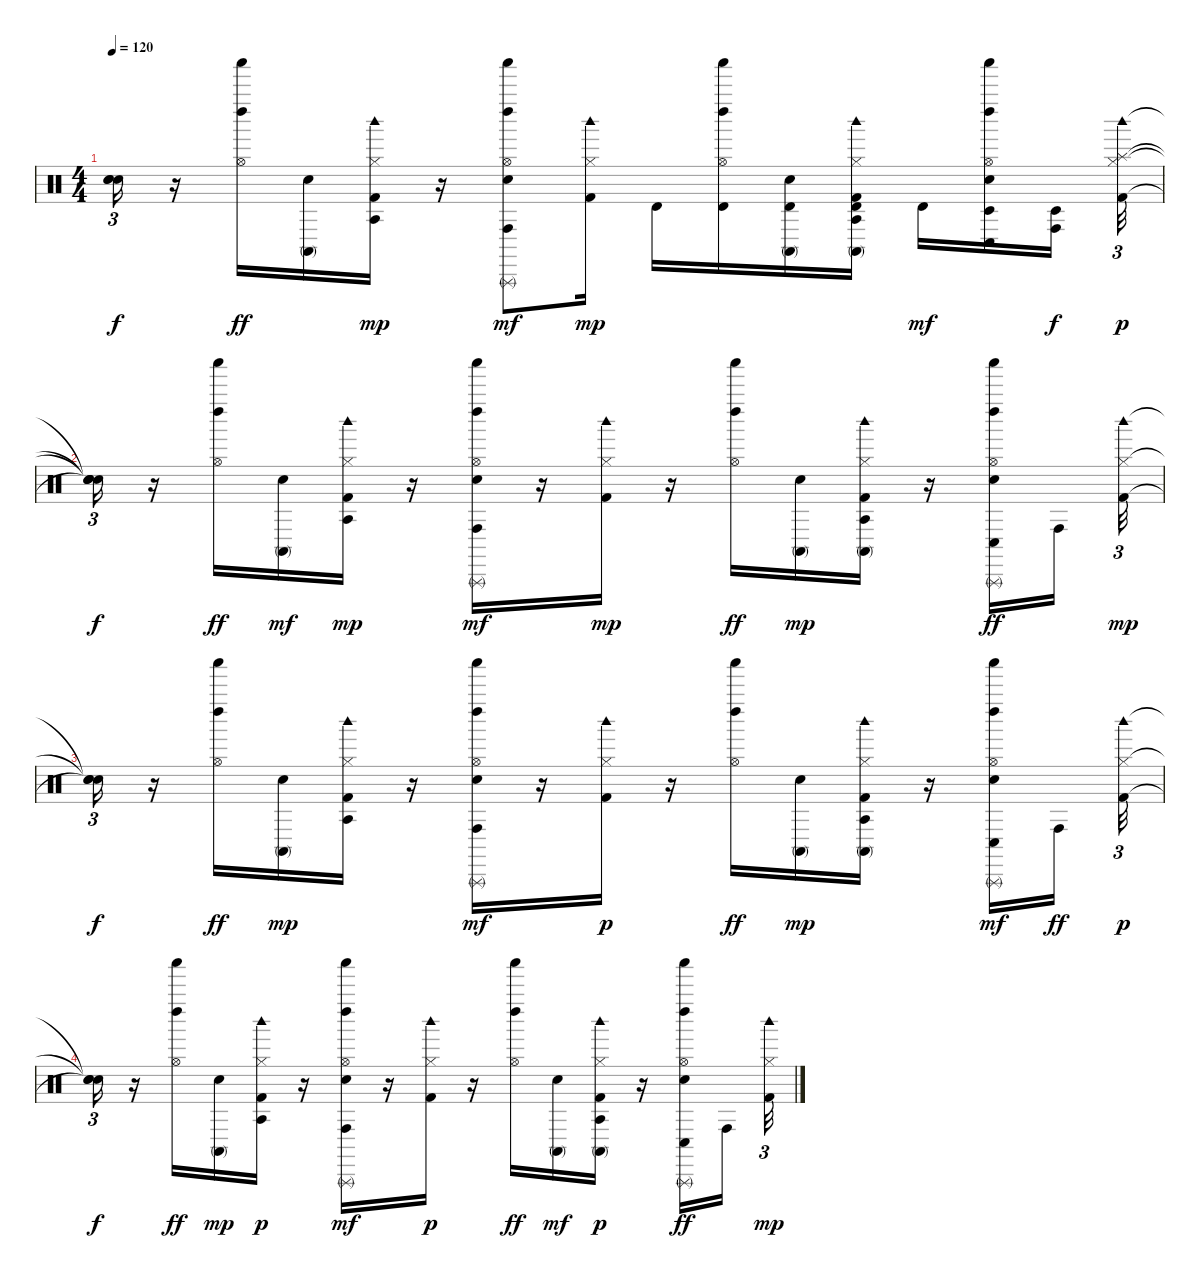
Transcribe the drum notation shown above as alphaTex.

\track "" {instrument percussion}
\staff {score}
\articulation defaults
\ts (4 4)
\tempo 120
\clef neutral
\ks c
("Snare (hit)"{t} "Snare (hit)"{t} "Snare (hit)"{t}).16{tu (3 2) dy f} r.16 ("Shaker (hit)" "Left Maraca (hit)" "Hi-Hat (open)").16{dy ff} ("Electric Snare (hit)" "Conga high (mute)").16 ("Kick (hit) 2" "Hi-Hat (closed)" "Agogo tow (hit)" "Woodblock high (hit)").16{dy mp} r.16 ("Shaker (hit)" "Left Maraca (hit)" "Electric Snare (hit)" "Conga high (hit)" "Hi-Hat (open)" "Triangle (rnute)").8{dy mf} ("Kick (hit) 2" "Hi-Hat (closed)" "Woodblock high (hit)").16{dy mp} "Timbale high (hit)".16 ("Shaker (hit)" "Left Maraca (hit)" "Hi-Hat (open)" "Timbale high (hit)").16 ("Electric Snare (hit)" "Conga high (mute)" "Timbale high (hit)").16 ("Kick (hit) 2" "Conga high (mute)" "Hi-Hat (closed)" "Timbale high (hit)" "Agogo tow (hit)" "Woodblock high (hit)").16 "Timbale high (hit)".16{dy mf} ("Shaker (hit)" "Left Maraca (hit)" "Electric Snare (hit)" "Conga low (hit)" "Hi-Hat (open)" "Timbale low (hit)").16 ("Conga high (hit)" "Timbale low (hit)").16{dy f beam splitsecondary} ("Kick (hit) 2" "Hi-Hat (closed)" "Splash (hit)" "Woodblock high (hit)").32{tu (3 2) dy p} |
("Snare (hit)"{t} "Snare (hit)"{t} "Snare (hit)"{t} "Snare (hit)"{t}).16{tu (3 2) dy f} r.16 ("Shaker (hit)" "Left Maraca (hit)" "Hi-Hat (open)").16{dy ff} ("Electric Snare (hit)" "Conga high (mute)").16{dy mf} ("Kick (hit) 2" "Hi-Hat (closed)" "Agogo tow (hit)" "Woodblock high (hit)").16{dy mp} r.16 ("Shaker (hit)" "Left Maraca (hit)" "Electric Snare (hit)" "Conga high (hit)" "Hi-Hat (open)" "Triangle (rnute)").16{dy mf} r.16 ("Kick (hit) 2" "Hi-Hat (closed)" "Woodblock high (hit)").16{dy mp} r.16 ("Shaker (hit)" "Left Maraca (hit)" "Hi-Hat (open)").16{dy ff} ("Electric Snare (hit)" "Conga high (mute)").16{dy mp} ("Kick (hit) 2" "Conga high (mute)" "Hi-Hat (closed)" "Agogo tow (hit)" "Woodblock high (hit)").16 r.16 ("Shaker (hit)" "Left Maraca (hit)" "Electric Snare (hit)" "Conga low (hit)" "Hi-Hat (open)" "Triangle (rnute)").16{dy ff} "Conga high (hit)".16{beam splitsecondary} ("Kick (hit) 2" "Hi-Hat (closed)" "Woodblock high (hit)").32{tu (3 2) dy mp} |
("Snare (hit)"{t} "Snare (hit)"{t} "Snare (hit)"{t}).16{tu (3 2) dy f} r.16 ("Shaker (hit)" "Left Maraca (hit)" "Hi-Hat (open)").16{dy ff} ("Electric Snare (hit)" "Conga high (mute)").16{dy mp} ("Kick (hit) 2" "Hi-Hat (closed)" "Agogo tow (hit)" "Woodblock high (hit)").16 r.16 ("Shaker (hit)" "Left Maraca (hit)" "Electric Snare (hit)" "Conga high (hit)" "Hi-Hat (open)" "Triangle (rnute)").16{dy mf} r.16 ("Kick (hit) 2" "Hi-Hat (closed)" "Woodblock high (hit)").16{dy p} r.16 ("Shaker (hit)" "Left Maraca (hit)" "Hi-Hat (open)").16{dy ff} ("Electric Snare (hit)" "Conga high (mute)").16{dy mp} ("Kick (hit) 2" "Conga high (mute)" "Hi-Hat (closed)" "Agogo tow (hit)" "Woodblock high (hit)").16 r.16 ("Shaker (hit)" "Left Maraca (hit)" "Electric Snare (hit)" "Conga low (hit)" "Hi-Hat (open)" "Triangle (rnute)").16{dy mf} "Conga high (hit)".16{dy ff beam splitsecondary} ("Kick (hit) 2" "Hi-Hat (closed)" "Woodblock high (hit)").32{tu (3 2) dy p} |
("Snare (hit)"{t} "Snare (hit)"{t} "Snare (hit)"{t}).16{tu (3 2) dy f} r.16 ("Shaker (hit)" "Left Maraca (hit)" "Hi-Hat (open)").16{dy ff} ("Electric Snare (hit)" "Conga high (mute)").16{dy mp} ("Kick (hit) 2" "Hi-Hat (closed)" "Agogo tow (hit)" "Woodblock high (hit)").16{dy p} r.16 ("Shaker (hit)" "Left Maraca (hit)" "Electric Snare (hit)" "Conga high (hit)" "Hi-Hat (open)" "Triangle (rnute)").16{dy mf} r.16 ("Kick (hit) 2" "Hi-Hat (closed)" "Woodblock high (hit)").16{dy p} r.16 ("Shaker (hit)" "Left Maraca (hit)" "Hi-Hat (open)").16{dy ff} ("Electric Snare (hit)" "Conga high (mute)").16{dy mf} ("Kick (hit) 2" "Conga high (mute)" "Hi-Hat (closed)" "Agogo tow (hit)" "Woodblock high (hit)").16{dy p} r.16 ("Shaker (hit)" "Left Maraca (hit)" "Electric Snare (hit)" "Conga low (hit)" "Hi-Hat (open)" "Triangle (rnute)").16{dy ff} "Conga high (hit)".16{beam splitsecondary} ("Kick (hit) 2" "Hi-Hat (closed)" "Woodblock high (hit)").32{tu (3 2) dy mp}
